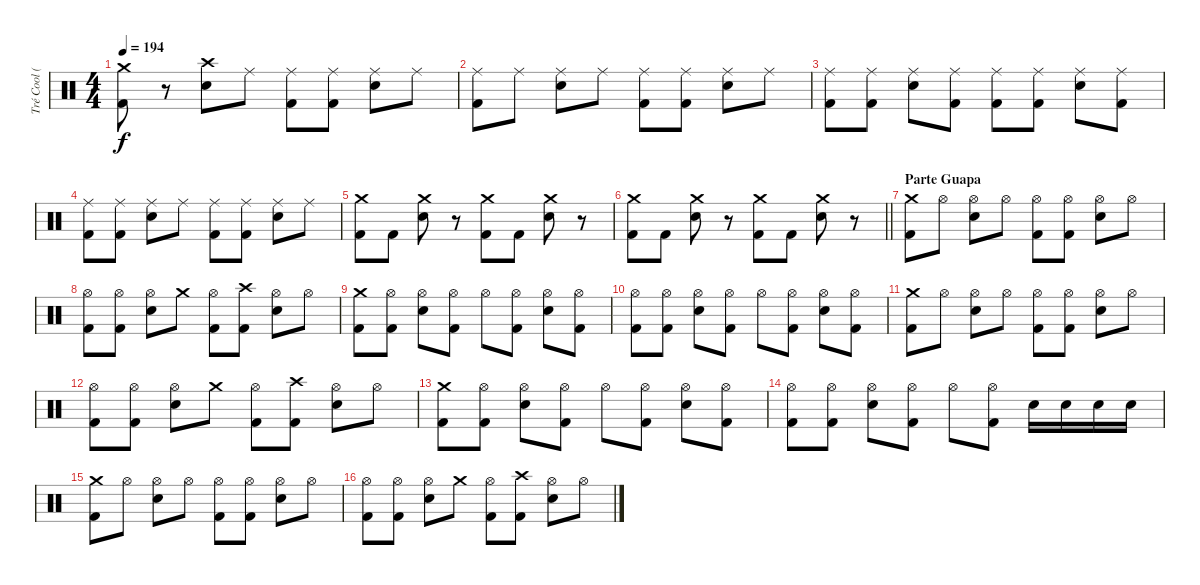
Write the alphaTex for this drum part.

\track ("Tré Cool (Drums)" "Tré Cool (") {instrument percussion}
\staff {score}
\articulation defaults
\ts (4 4)
\tempo 194
\clef neutral
\ks c
("Kick (hit) 2" "Crash medium (hit)").8{dy f} r.8 ("Snare (hit) 2" "Crash high (hit)").8 "Ride (middle)".8 ("Kick (hit) 2" "Ride (middle)").8 ("Kick (hit) 2" "Ride (middle)").8 ("Snare (hit) 2" "Ride (middle)").8 "Ride (middle)".8 |
("Kick (hit) 2" "Ride (middle)").8 "Ride (middle)".8 ("Snare (hit) 2" "Ride (middle)").8 "Ride (middle)".8 ("Kick (hit) 2" "Ride (middle)").8 ("Kick (hit) 2" "Ride (middle)").8 ("Snare (hit) 2" "Ride (middle)").8 "Ride (middle)".8 |
("Kick (hit) 2" "Ride (middle)").8 ("Kick (hit) 2" "Ride (middle)").8 ("Snare (hit) 2" "Ride (middle)").8 ("Kick (hit) 2" "Ride (middle)").8 ("Kick (hit) 2" "Ride (middle)").8 ("Kick (hit) 2" "Ride (middle)").8 ("Snare (hit) 2" "Ride (middle)").8 ("Kick (hit) 2" "Ride (middle)").8 |
("Kick (hit) 2" "Ride (middle)").8 ("Kick (hit) 2" "Ride (middle)").8 ("Snare (hit) 2" "Ride (middle)").8 "Ride (middle)".8 ("Kick (hit) 2" "Ride (middle)").8 ("Kick (hit) 2" "Ride (middle)").8 ("Snare (hit) 2" "Ride (middle)").8 "Ride (middle)".8 |
("Kick (hit) 2" "Crash medium (hit)").8 "Kick (hit) 2".8 ("Snare (hit) 2" "Crash medium (hit)").8 r.8 ("Kick (hit) 2" "Crash medium (hit)").8 "Kick (hit) 2".8 ("Snare (hit) 2" "Crash medium (hit)").8 r.8 |
\barLineRight lightlight
("Kick (hit) 2" "Crash medium (hit)").8 "Kick (hit) 2".8 ("Snare (hit) 2" "Crash medium (hit)").8 r.8 ("Kick (hit) 2" "Crash medium (hit)").8 "Kick (hit) 2".8 ("Snare (hit) 2" "Crash medium (hit)").8 r.8 |
\section ("" "Parte Guapa")
("Kick (hit) 2" "Crash medium (hit)").8 "Hi-Hat (open)".8 ("Snare (hit) 2" "Hi-Hat (open)").8 "Hi-Hat (open)".8 ("Kick (hit) 2" "Hi-Hat (open)").8 ("Kick (hit) 2" "Hi-Hat (open)").8 ("Snare (hit) 2" "Hi-Hat (open)").8 "Hi-Hat (open)".8 |
("Kick (hit) 2" "Hi-Hat (open)").8 ("Kick (hit) 2" "Hi-Hat (open)").8 ("Snare (hit) 2" "Hi-Hat (open)").8 "Crash medium (hit)".8 ("Kick (hit) 2" "Hi-Hat (open)").8 ("Kick (hit) 2" "Crash high (hit)").8 ("Snare (hit) 2" "Hi-Hat (open)").8 "Hi-Hat (open)".8 |
("Kick (hit) 2" "Crash medium (hit)").8 ("Kick (hit) 2" "Hi-Hat (open)").8 ("Snare (hit) 2" "Hi-Hat (open)").8 ("Kick (hit) 2" "Hi-Hat (open)").8 "Hi-Hat (open)".8 ("Kick (hit) 2" "Hi-Hat (open)").8 ("Snare (hit) 2" "Hi-Hat (open)").8 ("Kick (hit) 2" "Hi-Hat (open)").8 |
("Kick (hit) 2" "Hi-Hat (open)").8 ("Kick (hit) 2" "Hi-Hat (open)").8 ("Snare (hit) 2" "Hi-Hat (open)").8 ("Kick (hit) 2" "Hi-Hat (open)").8 "Hi-Hat (open)".8 ("Kick (hit) 2" "Hi-Hat (open)").8 ("Snare (hit) 2" "Hi-Hat (open)").8 ("Kick (hit) 2" "Hi-Hat (open)").8 |
("Kick (hit) 2" "Crash medium (hit)").8 "Hi-Hat (open)".8 ("Snare (hit) 2" "Hi-Hat (open)").8 "Hi-Hat (open)".8 ("Kick (hit) 2" "Hi-Hat (open)").8 ("Kick (hit) 2" "Hi-Hat (open)").8 ("Snare (hit) 2" "Hi-Hat (open)").8 "Hi-Hat (open)".8 |
("Kick (hit) 2" "Hi-Hat (open)").8 ("Kick (hit) 2" "Hi-Hat (open)").8 ("Snare (hit) 2" "Hi-Hat (open)").8 "Crash medium (hit)".8 ("Kick (hit) 2" "Hi-Hat (open)").8 ("Kick (hit) 2" "Crash high (hit)").8 ("Snare (hit) 2" "Hi-Hat (open)").8 "Hi-Hat (open)".8 |
("Kick (hit) 2" "Crash medium (hit)").8 ("Kick (hit) 2" "Hi-Hat (open)").8 ("Snare (hit) 2" "Hi-Hat (open)").8 ("Kick (hit) 2" "Hi-Hat (open)").8 "Hi-Hat (open)".8 ("Kick (hit) 2" "Hi-Hat (open)").8 ("Snare (hit) 2" "Hi-Hat (open)").8 ("Kick (hit) 2" "Hi-Hat (open)").8 |
("Kick (hit) 2" "Hi-Hat (open)").8 ("Kick (hit) 2" "Hi-Hat (open)").8 ("Snare (hit) 2" "Hi-Hat (open)").8 ("Kick (hit) 2" "Hi-Hat (open)").8 "Hi-Hat (open)".8 ("Kick (hit) 2" "Hi-Hat (open)").8 "Snare (hit) 2".16 "Snare (hit) 2".16 "Snare (hit) 2".16 "Snare (hit) 2".16 |
("Kick (hit) 2" "Crash medium (hit)").8 "Hi-Hat (open)".8 ("Snare (hit) 2" "Hi-Hat (open)").8 "Hi-Hat (open)".8 ("Kick (hit) 2" "Hi-Hat (open)").8 ("Kick (hit) 2" "Hi-Hat (open)").8 ("Snare (hit) 2" "Hi-Hat (open)").8 "Hi-Hat (open)".8 |
("Kick (hit) 2" "Hi-Hat (open)").8 ("Kick (hit) 2" "Hi-Hat (open)").8 ("Snare (hit) 2" "Hi-Hat (open)").8 "Crash medium (hit)".8 ("Kick (hit) 2" "Hi-Hat (open)").8 ("Kick (hit) 2" "Crash high (hit)").8 ("Snare (hit) 2" "Hi-Hat (open)").8 "Hi-Hat (open)".8
